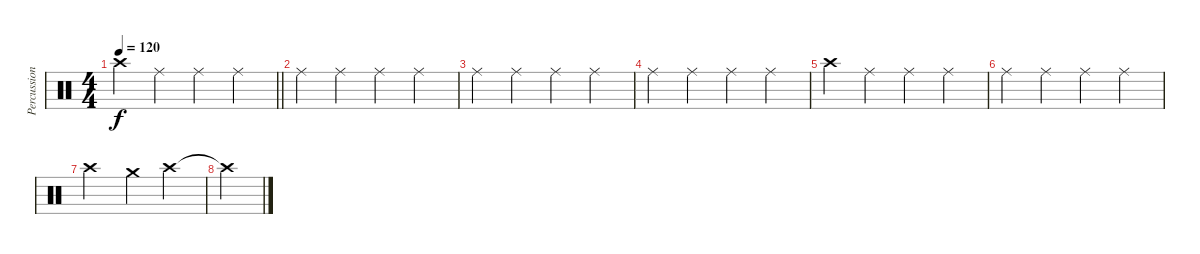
\track ("Percussion" "Percussion") {instrument percussion}
\staff {score}
\articulation defaults
\ts (4 4)
\tempo 120
\clef neutral
\barLineRight lightlight
\ks c "Crash high (hit)".4{dy f} "Ride (middle)".4 "Ride (middle)".4 "Ride (middle)".4
|
"Ride (middle)".4 "Ride (middle)".4 "Ride (middle)".4 "Ride (middle)".4 |
"Ride (middle)".4 "Ride (middle)".4 "Ride (middle)".4 "Ride (middle)".4 |
"Ride (middle)".4 "Ride (middle)".4 "Ride (middle)".4 "Ride (middle)".4 |
"Crash high (hit)".4 "Ride (middle)".4 "Ride (middle)".4 "Ride (middle)".4 |
"Ride (middle)".4 "Ride (middle)".4 "Ride (middle)".4 "Ride (middle)".4 |
"Crash high (hit)".2 "Crash medium (hit)".4 "Crash high (hit)".4 |
"Crash high (hit)"{t}.4
